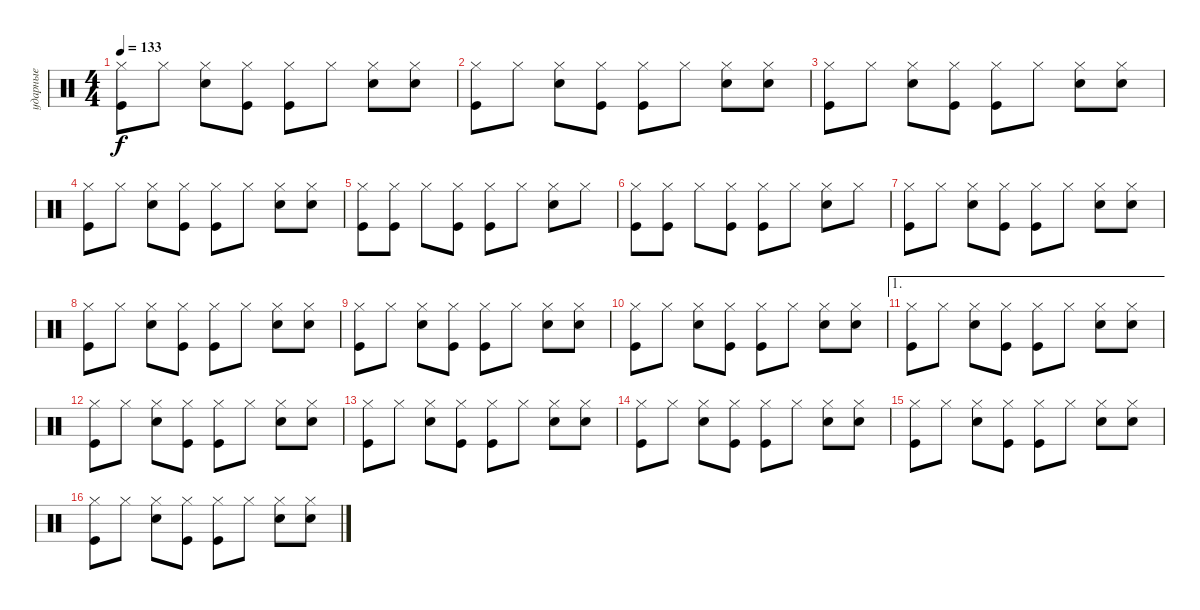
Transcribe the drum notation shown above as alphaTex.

\track ("ударные" "ударные") {instrument percussion}
\staff {score}
\articulation defaults
\ts (4 4)
\tempo 133
\clef neutral
\ks c
("Kick (hit)" "Hi-Hat (closed)").8{dy f} "Hi-Hat (closed)".8 ("Snare (hit) 2" "Hi-Hat (closed)").8 ("Hi-Hat (closed)" "Kick (hit)").8 ("Kick (hit)" "Hi-Hat (closed)").8 "Hi-Hat (closed)".8 ("Hi-Hat (closed)" "Snare (hit) 2").8 ("Snare (hit) 2" "Hi-Hat (closed)").8 |
("Kick (hit)" "Hi-Hat (closed)").8 "Hi-Hat (closed)".8 ("Snare (hit) 2" "Hi-Hat (closed)").8 ("Hi-Hat (closed)" "Kick (hit)").8 ("Kick (hit)" "Hi-Hat (closed)").8 "Hi-Hat (closed)".8 ("Hi-Hat (closed)" "Snare (hit) 2").8 ("Snare (hit) 2" "Hi-Hat (closed)").8 |
("Kick (hit)" "Hi-Hat (closed)").8 "Hi-Hat (closed)".8 ("Snare (hit) 2" "Hi-Hat (closed)").8 ("Hi-Hat (closed)" "Kick (hit)").8 ("Kick (hit)" "Hi-Hat (closed)").8 "Hi-Hat (closed)".8 ("Hi-Hat (closed)" "Snare (hit) 2").8 ("Snare (hit) 2" "Hi-Hat (closed)").8 |
("Kick (hit)" "Hi-Hat (closed)").8 "Hi-Hat (closed)".8 ("Snare (hit) 2" "Hi-Hat (closed)").8 ("Hi-Hat (closed)" "Kick (hit)").8 ("Kick (hit)" "Hi-Hat (closed)").8 "Hi-Hat (closed)".8 ("Hi-Hat (closed)" "Snare (hit) 2").8 ("Snare (hit) 2" "Hi-Hat (closed)").8 |
("Kick (hit)" "Hi-Hat (closed)").8 ("Kick (hit)" "Hi-Hat (closed)").8 "Hi-Hat (closed)".8 ("Kick (hit)" "Hi-Hat (closed)").8 ("Hi-Hat (closed)" "Kick (hit)").8 "Hi-Hat (closed)".8 ("Snare (hit) 2" "Hi-Hat (closed)").8 "Hi-Hat (closed)".8 |
("Kick (hit)" "Hi-Hat (closed)").8 ("Kick (hit)" "Hi-Hat (closed)").8 "Hi-Hat (closed)".8 ("Kick (hit)" "Hi-Hat (closed)").8 ("Hi-Hat (closed)" "Kick (hit)").8 "Hi-Hat (closed)".8 ("Snare (hit) 2" "Hi-Hat (closed)").8 "Hi-Hat (closed)".8 |
("Kick (hit)" "Hi-Hat (closed)").8 "Hi-Hat (closed)".8 ("Snare (hit) 2" "Hi-Hat (closed)").8 ("Hi-Hat (closed)" "Kick (hit)").8 ("Kick (hit)" "Hi-Hat (closed)").8 "Hi-Hat (closed)".8 ("Hi-Hat (closed)" "Snare (hit) 2").8 ("Snare (hit) 2" "Hi-Hat (closed)").8 |
("Kick (hit)" "Hi-Hat (closed)").8 "Hi-Hat (closed)".8 ("Snare (hit) 2" "Hi-Hat (closed)").8 ("Hi-Hat (closed)" "Kick (hit)").8 ("Kick (hit)" "Hi-Hat (closed)").8 "Hi-Hat (closed)".8 ("Hi-Hat (closed)" "Snare (hit) 2").8 ("Snare (hit) 2" "Hi-Hat (closed)").8 |
("Kick (hit)" "Hi-Hat (closed)").8 "Hi-Hat (closed)".8 ("Snare (hit) 2" "Hi-Hat (closed)").8 ("Hi-Hat (closed)" "Kick (hit)").8 ("Kick (hit)" "Hi-Hat (closed)").8 "Hi-Hat (closed)".8 ("Hi-Hat (closed)" "Snare (hit) 2").8 ("Snare (hit) 2" "Hi-Hat (closed)").8 |
("Kick (hit)" "Hi-Hat (closed)").8 "Hi-Hat (closed)".8 ("Snare (hit) 2" "Hi-Hat (closed)").8 ("Hi-Hat (closed)" "Kick (hit)").8 ("Kick (hit)" "Hi-Hat (closed)").8 "Hi-Hat (closed)".8 ("Hi-Hat (closed)" "Snare (hit) 2").8 ("Snare (hit) 2" "Hi-Hat (closed)").8 |
\ae 1
("Kick (hit)" "Hi-Hat (closed)").8 "Hi-Hat (closed)".8 ("Snare (hit) 2" "Hi-Hat (closed)").8 ("Hi-Hat (closed)" "Kick (hit)").8 ("Kick (hit)" "Hi-Hat (closed)").8 "Hi-Hat (closed)".8 ("Hi-Hat (closed)" "Snare (hit) 2").8 ("Snare (hit) 2" "Hi-Hat (closed)").8 |
("Kick (hit)" "Hi-Hat (closed)").8 "Hi-Hat (closed)".8 ("Snare (hit) 2" "Hi-Hat (closed)").8 ("Hi-Hat (closed)" "Kick (hit)").8 ("Kick (hit)" "Hi-Hat (closed)").8 "Hi-Hat (closed)".8 ("Hi-Hat (closed)" "Snare (hit) 2").8 ("Snare (hit) 2" "Hi-Hat (closed)").8 |
("Kick (hit)" "Hi-Hat (closed)").8 "Hi-Hat (closed)".8 ("Snare (hit) 2" "Hi-Hat (closed)").8 ("Hi-Hat (closed)" "Kick (hit)").8 ("Kick (hit)" "Hi-Hat (closed)").8 "Hi-Hat (closed)".8 ("Hi-Hat (closed)" "Snare (hit) 2").8 ("Snare (hit) 2" "Hi-Hat (closed)").8 |
("Kick (hit)" "Hi-Hat (closed)").8 "Hi-Hat (closed)".8 ("Snare (hit) 2" "Hi-Hat (closed)").8 ("Hi-Hat (closed)" "Kick (hit)").8 ("Kick (hit)" "Hi-Hat (closed)").8 "Hi-Hat (closed)".8 ("Hi-Hat (closed)" "Snare (hit) 2").8 ("Snare (hit) 2" "Hi-Hat (closed)").8 |
("Kick (hit)" "Hi-Hat (closed)").8 "Hi-Hat (closed)".8 ("Snare (hit) 2" "Hi-Hat (closed)").8 ("Hi-Hat (closed)" "Kick (hit)").8 ("Kick (hit)" "Hi-Hat (closed)").8 "Hi-Hat (closed)".8 ("Hi-Hat (closed)" "Snare (hit) 2").8 ("Snare (hit) 2" "Hi-Hat (closed)").8 |
("Kick (hit)" "Hi-Hat (closed)").8 "Hi-Hat (closed)".8 ("Snare (hit) 2" "Hi-Hat (closed)").8 ("Hi-Hat (closed)" "Kick (hit)").8 ("Kick (hit)" "Hi-Hat (closed)").8 "Hi-Hat (closed)".8 ("Hi-Hat (closed)" "Snare (hit) 2").8 ("Snare (hit) 2" "Hi-Hat (closed)").8
